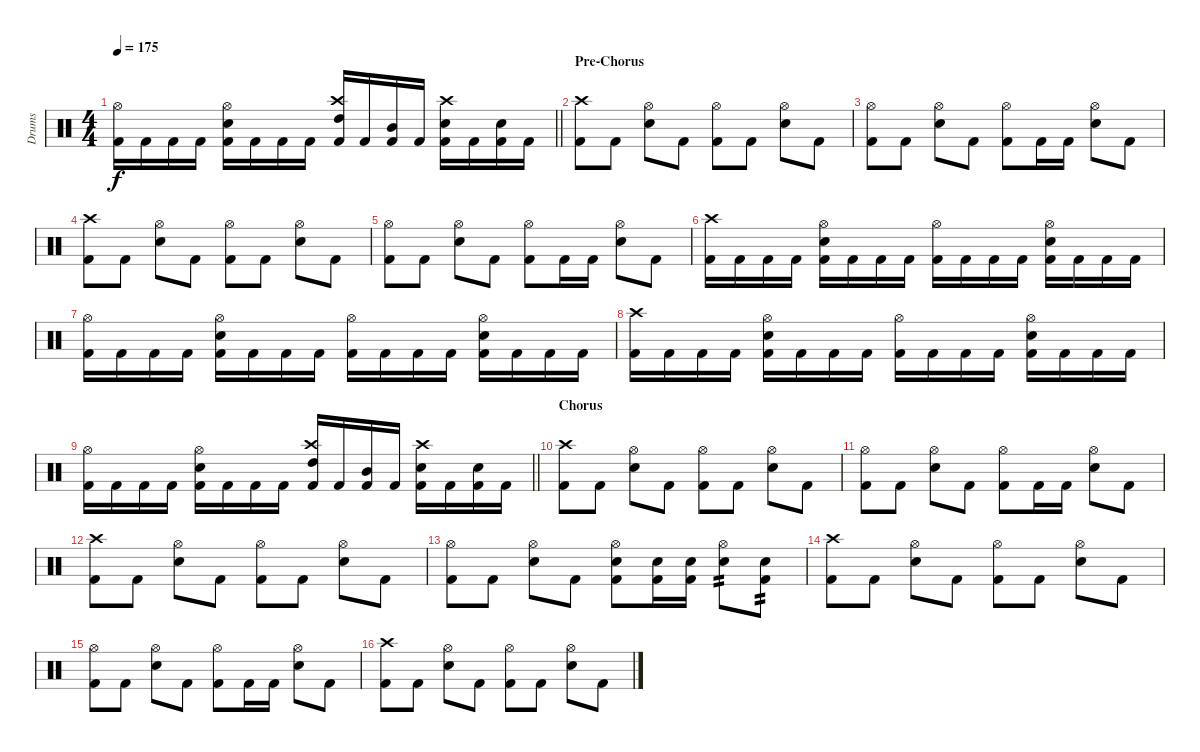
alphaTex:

\track ("Drums" "Drums") {instrument percussion}
\staff {score}
\articulation defaults
\ts (4 4)
\tempo 175
\clef neutral
\barLineRight lightlight
\ks c
("Hi-Hat (open)" "Kick (hit) 2").16{dy f} "Kick (hit) 2".16 "Kick (hit) 2".16 "Kick (hit) 2".16 ("Hi-Hat (open)" "Snare (hit) 2" "Kick (hit) 2").16 "Kick (hit) 2".16 "Kick (hit) 2".16 "Kick (hit) 2".16 ("Crash high (hit)" "High Tom (hit)" "Kick (hit) 2").16 "Kick (hit) 2".16 ("Mid Tom (hit)" "Kick (hit) 2").16 "Kick (hit) 2".16 ("Crash high (hit)" "Snare (hit) 2" "Kick (hit) 2").16 "Kick (hit) 2".16 ("Snare (hit) 2" "Kick (hit) 2").16 "Kick (hit) 2".16 |
\section ("" "Pre-Chorus")
("Crash high (hit)" "Kick (hit) 2").8 "Kick (hit) 2".8 ("Hi-Hat (open)" "Snare (hit) 2").8 "Kick (hit) 2".8 ("Hi-Hat (open)" "Kick (hit) 2").8 "Kick (hit) 2".8 ("Hi-Hat (open)" "Snare (hit) 2").8 "Kick (hit) 2".8 |
("Hi-Hat (open)" "Kick (hit) 2").8 "Kick (hit) 2".8 ("Hi-Hat (open)" "Snare (hit) 2").8 "Kick (hit) 2".8 ("Hi-Hat (open)" "Kick (hit) 2").8 "Kick (hit) 2".16 "Kick (hit) 2".16 ("Hi-Hat (open)" "Snare (hit) 2").8 "Kick (hit) 2".8 |
("Crash high (hit)" "Kick (hit) 2").8 "Kick (hit) 2".8 ("Hi-Hat (open)" "Snare (hit) 2").8 "Kick (hit) 2".8 ("Hi-Hat (open)" "Kick (hit) 2").8 "Kick (hit) 2".8 ("Hi-Hat (open)" "Snare (hit) 2").8 "Kick (hit) 2".8 |
("Hi-Hat (open)" "Kick (hit) 2").8 "Kick (hit) 2".8 ("Hi-Hat (open)" "Snare (hit) 2").8 "Kick (hit) 2".8 ("Hi-Hat (open)" "Kick (hit) 2").8 "Kick (hit) 2".16 "Kick (hit) 2".16 ("Hi-Hat (open)" "Snare (hit) 2").8 "Kick (hit) 2".8 |
("Crash high (hit)" "Kick (hit) 2").16 "Kick (hit) 2".16 "Kick (hit) 2".16 "Kick (hit) 2".16 ("Hi-Hat (open)" "Snare (hit) 2" "Kick (hit) 2").16 "Kick (hit) 2".16 "Kick (hit) 2".16 "Kick (hit) 2".16 ("Hi-Hat (open)" "Kick (hit) 2").16 "Kick (hit) 2".16 "Kick (hit) 2".16 "Kick (hit) 2".16 ("Hi-Hat (open)" "Snare (hit) 2" "Kick (hit) 2").16 "Kick (hit) 2".16 "Kick (hit) 2".16 "Kick (hit) 2".16 |
("Hi-Hat (open)" "Kick (hit) 2").16 "Kick (hit) 2".16 "Kick (hit) 2".16 "Kick (hit) 2".16 ("Hi-Hat (open)" "Snare (hit) 2" "Kick (hit) 2").16 "Kick (hit) 2".16 "Kick (hit) 2".16 "Kick (hit) 2".16 ("Hi-Hat (open)" "Kick (hit) 2").16 "Kick (hit) 2".16 "Kick (hit) 2".16 "Kick (hit) 2".16 ("Hi-Hat (open)" "Snare (hit) 2" "Kick (hit) 2").16 "Kick (hit) 2".16 "Kick (hit) 2".16 "Kick (hit) 2".16 |
("Crash high (hit)" "Kick (hit) 2").16 "Kick (hit) 2".16 "Kick (hit) 2".16 "Kick (hit) 2".16 ("Hi-Hat (open)" "Snare (hit) 2" "Kick (hit) 2").16 "Kick (hit) 2".16 "Kick (hit) 2".16 "Kick (hit) 2".16 ("Hi-Hat (open)" "Kick (hit) 2").16 "Kick (hit) 2".16 "Kick (hit) 2".16 "Kick (hit) 2".16 ("Hi-Hat (open)" "Snare (hit) 2" "Kick (hit) 2").16 "Kick (hit) 2".16 "Kick (hit) 2".16 "Kick (hit) 2".16 |
\barLineRight lightlight
("Hi-Hat (open)" "Kick (hit) 2").16 "Kick (hit) 2".16 "Kick (hit) 2".16 "Kick (hit) 2".16 ("Hi-Hat (open)" "Snare (hit) 2" "Kick (hit) 2").16 "Kick (hit) 2".16 "Kick (hit) 2".16 "Kick (hit) 2".16 ("Crash high (hit)" "High Tom (hit)" "Kick (hit) 2").16 "Kick (hit) 2".16 ("Mid Tom (hit)" "Kick (hit) 2").16 "Kick (hit) 2".16 ("Crash high (hit)" "Snare (hit) 2" "Kick (hit) 2").16 "Kick (hit) 2".16 ("Snare (hit) 2" "Kick (hit) 2").16 "Kick (hit) 2".16 |
\section ("" "Chorus")
("Crash high (hit)" "Kick (hit) 2").8 "Kick (hit) 2".8 ("Hi-Hat (open)" "Snare (hit) 2").8 "Kick (hit) 2".8 ("Hi-Hat (open)" "Kick (hit) 2").8 "Kick (hit) 2".8 ("Hi-Hat (open)" "Snare (hit) 2").8 "Kick (hit) 2".8 |
("Hi-Hat (open)" "Kick (hit) 2").8 "Kick (hit) 2".8 ("Hi-Hat (open)" "Snare (hit) 2").8 "Kick (hit) 2".8 ("Hi-Hat (open)" "Kick (hit) 2").8 "Kick (hit) 2".16 "Kick (hit) 2".16 ("Hi-Hat (open)" "Snare (hit) 2").8 "Kick (hit) 2".8 |
("Crash high (hit)" "Kick (hit) 2").8 "Kick (hit) 2".8 ("Hi-Hat (open)" "Snare (hit) 2").8 "Kick (hit) 2".8 ("Hi-Hat (open)" "Kick (hit) 2").8 "Kick (hit) 2".8 ("Hi-Hat (open)" "Snare (hit) 2").8 "Kick (hit) 2".8 |
("Hi-Hat (open)" "Kick (hit) 2").8 "Kick (hit) 2".8 ("Hi-Hat (open)" "Snare (hit) 2").8 "Kick (hit) 2".8 ("Hi-Hat (open)" "Snare (hit) 2" "Kick (hit) 2").8 ("Snare (hit) 2" "Kick (hit) 2").16 ("Snare (hit) 2" "Kick (hit) 2").16 ("Hi-Hat (open)" "Snare (hit) 2").8{tp 2} ("Snare (hit) 2" "Kick (hit) 2").8{tp 2} |
("Crash high (hit)" "Kick (hit) 2").8 "Kick (hit) 2".8 ("Hi-Hat (open)" "Snare (hit) 2").8 "Kick (hit) 2".8 ("Hi-Hat (open)" "Kick (hit) 2").8 "Kick (hit) 2".8 ("Hi-Hat (open)" "Snare (hit) 2").8 "Kick (hit) 2".8 |
("Hi-Hat (open)" "Kick (hit) 2").8 "Kick (hit) 2".8 ("Hi-Hat (open)" "Snare (hit) 2").8 "Kick (hit) 2".8 ("Hi-Hat (open)" "Kick (hit) 2").8 "Kick (hit) 2".16 "Kick (hit) 2".16 ("Hi-Hat (open)" "Snare (hit) 2").8 "Kick (hit) 2".8 |
("Crash high (hit)" "Kick (hit) 2").8 "Kick (hit) 2".8 ("Hi-Hat (open)" "Snare (hit) 2").8 "Kick (hit) 2".8 ("Hi-Hat (open)" "Kick (hit) 2").8 "Kick (hit) 2".8 ("Hi-Hat (open)" "Snare (hit) 2").8 "Kick (hit) 2".8
